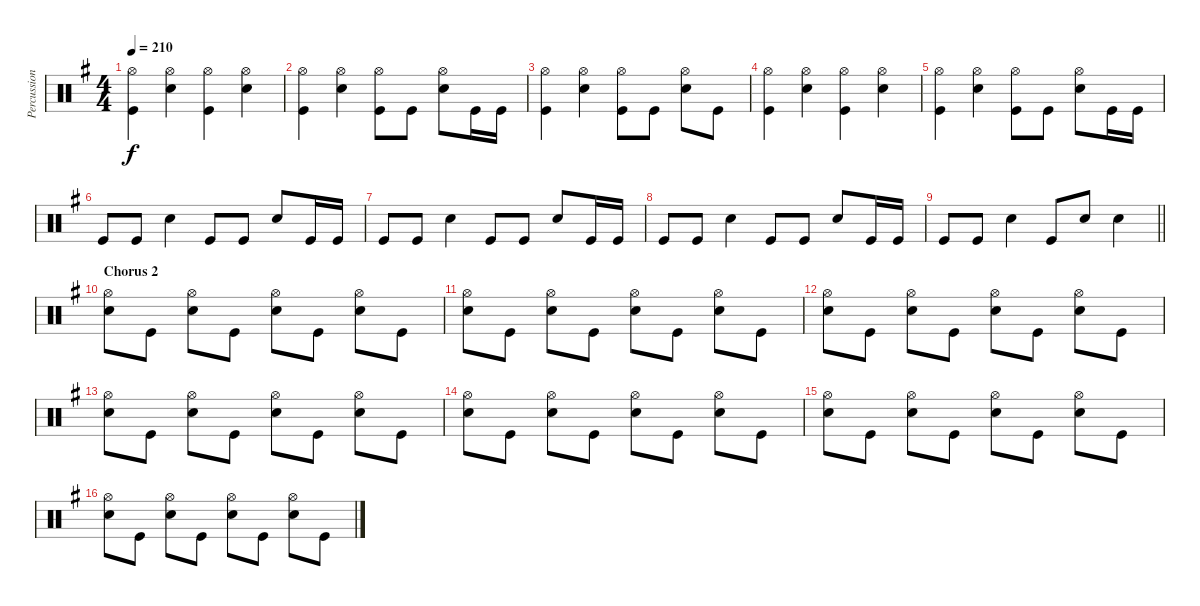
\track ("Percussion" "Percussion") {instrument percussion}
\staff {score}
\articulation defaults
\ts (4 4)
\tempo 210
\clef neutral
\ks g
("Hi-Hat (open)" "Kick (hit)").4{dy f} ("Hi-Hat (open)" "Snare (hit) 2").4 ("Hi-Hat (open)" "Kick (hit)").4 ("Hi-Hat (open)" "Snare (hit) 2").4 |
("Hi-Hat (open)" "Kick (hit)").4 ("Hi-Hat (open)" "Snare (hit) 2").4 ("Hi-Hat (open)" "Kick (hit)").8 "Kick (hit)".8 ("Hi-Hat (open)" "Snare (hit) 2").8 "Kick (hit)".16 "Kick (hit)".16 |
("Hi-Hat (open)" "Kick (hit)").4 ("Hi-Hat (open)" "Snare (hit) 2").4 ("Hi-Hat (open)" "Kick (hit)").8 "Kick (hit)".8 ("Hi-Hat (open)" "Snare (hit) 2").8 "Kick (hit)".8 |
("Hi-Hat (open)" "Kick (hit)").4 ("Hi-Hat (open)" "Snare (hit) 2").4 ("Hi-Hat (open)" "Kick (hit)").4 ("Hi-Hat (open)" "Snare (hit) 2").4 |
("Hi-Hat (open)" "Kick (hit)").4 ("Hi-Hat (open)" "Snare (hit) 2").4 ("Hi-Hat (open)" "Kick (hit)").8 "Kick (hit)".8 ("Hi-Hat (open)" "Snare (hit) 2").8 "Kick (hit)".16 "Kick (hit)".16 |
"Kick (hit)".8 "Kick (hit)".8 "Snare (hit) 2".4 "Kick (hit)".8 "Kick (hit)".8 "Snare (hit) 2".8 "Kick (hit)".16 "Kick (hit)".16 |
"Kick (hit)".8 "Kick (hit)".8 "Snare (hit) 2".4 "Kick (hit)".8 "Kick (hit)".8 "Snare (hit) 2".8 "Kick (hit)".16 "Kick (hit)".16 |
"Kick (hit)".8 "Kick (hit)".8 "Snare (hit) 2".4 "Kick (hit)".8 "Kick (hit)".8 "Snare (hit) 2".8 "Kick (hit)".16 "Kick (hit)".16 |
\barLineRight lightlight "Kick (hit)".8 "Kick (hit)".8 "Snare (hit) 2".4 "Kick (hit)".8 "Snare (hit) 2".8 "Snare (hit) 2".4
|
\section ("" "Chorus 2")
("Hi-Hat (open)" "Snare (hit) 2").8 "Kick (hit)".8 ("Hi-Hat (open)" "Snare (hit) 2").8 "Kick (hit)".8 ("Hi-Hat (open)" "Snare (hit) 2").8 "Kick (hit)".8 ("Hi-Hat (open)" "Snare (hit) 2").8 "Kick (hit)".8 |
("Hi-Hat (open)" "Snare (hit) 2").8 "Kick (hit)".8 ("Hi-Hat (open)" "Snare (hit) 2").8 "Kick (hit)".8 ("Hi-Hat (open)" "Snare (hit) 2").8 "Kick (hit)".8 ("Hi-Hat (open)" "Snare (hit) 2").8 "Kick (hit)".8 |
("Hi-Hat (open)" "Snare (hit) 2").8 "Kick (hit)".8 ("Hi-Hat (open)" "Snare (hit) 2").8 "Kick (hit)".8 ("Hi-Hat (open)" "Snare (hit) 2").8 "Kick (hit)".8 ("Hi-Hat (open)" "Snare (hit) 2").8 "Kick (hit)".8 |
("Hi-Hat (open)" "Snare (hit) 2").8 "Kick (hit)".8 ("Hi-Hat (open)" "Snare (hit) 2").8 "Kick (hit)".8 ("Hi-Hat (open)" "Snare (hit) 2").8 "Kick (hit)".8 ("Hi-Hat (open)" "Snare (hit) 2").8 "Kick (hit)".8 |
("Hi-Hat (open)" "Snare (hit) 2").8 "Kick (hit)".8 ("Hi-Hat (open)" "Snare (hit) 2").8 "Kick (hit)".8 ("Hi-Hat (open)" "Snare (hit) 2").8 "Kick (hit)".8 ("Hi-Hat (open)" "Snare (hit) 2").8 "Kick (hit)".8 |
("Hi-Hat (open)" "Snare (hit) 2").8 "Kick (hit)".8 ("Hi-Hat (open)" "Snare (hit) 2").8 "Kick (hit)".8 ("Hi-Hat (open)" "Snare (hit) 2").8 "Kick (hit)".8 ("Hi-Hat (open)" "Snare (hit) 2").8 "Kick (hit)".8 |
("Hi-Hat (open)" "Snare (hit) 2").8 "Kick (hit)".8 ("Hi-Hat (open)" "Snare (hit) 2").8 "Kick (hit)".8 ("Hi-Hat (open)" "Snare (hit) 2").8 "Kick (hit)".8 ("Hi-Hat (open)" "Snare (hit) 2").8 "Kick (hit)".8
